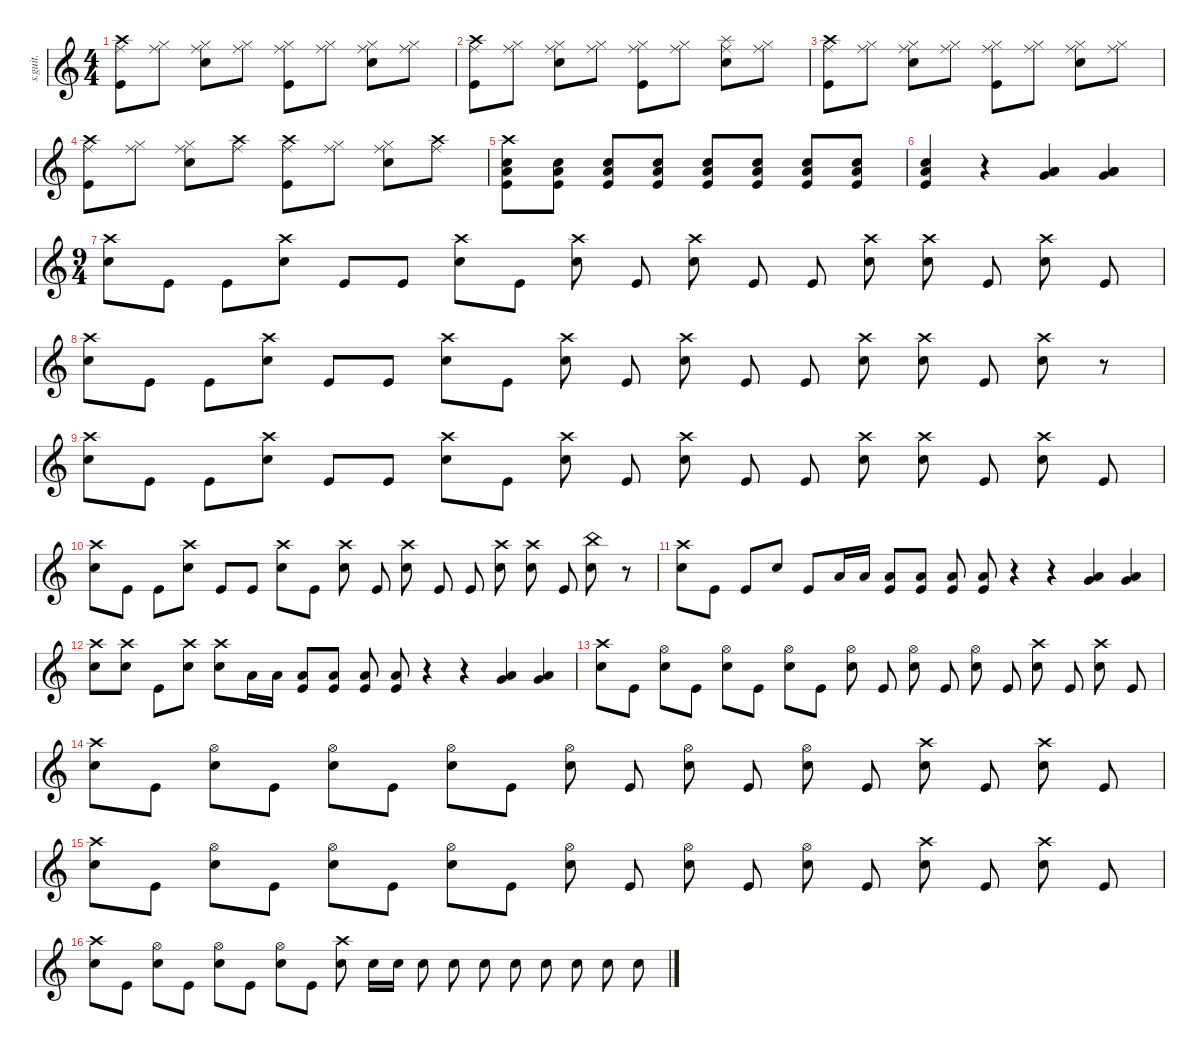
\defaultSystemsLayout 4
\hideDynamics
\bracketExtendMode nobrackets
\track ("A Nameless Ghoul - Drums" "s.guit.") {instrument percussion}
\staff {score}
\articulation defaults
\ts (4 4)
\tempo (130 hide)
\clef g2
\ks c
("Crash high (hit)" "Kick (hit)" "Ride (middle)").8{dy f} ("Hi-Hat (closed)" "Ride (middle)").8 ("Hi-Hat (closed)" "Electric Snare (hit)" "Ride (middle)").8 ("Hi-Hat (closed)" "Ride (middle)").8 ("Hi-Hat (closed)" "Kick (hit)" "Ride (middle)").8 ("Hi-Hat (closed)" "Ride (middle)").8 ("Hi-Hat (closed)" "Electric Snare (hit)" "Ride (middle)").8 ("Hi-Hat (closed)" "Ride (middle)").8 |
("Crash high (hit)" "Kick (hit)" "Ride (middle)").8 ("Hi-Hat (closed)" "Ride (middle)").8 ("Hi-Hat (closed)" "Electric Snare (hit)" "Ride (middle)").8 ("Hi-Hat (closed)" "Ride (middle)").8 ("Hi-Hat (closed)" "Kick (hit)" "Ride (middle)").8 ("Hi-Hat (closed)" "Ride (middle)").8 ("Splash (hit)" "Electric Snare (hit)" "Ride (middle)").8 ("Hi-Hat (closed)" "Ride (middle)").8 |
("Crash high (hit)" "Kick (hit)" "Ride (middle)").8 ("Hi-Hat (closed)" "Ride (middle)").8 ("Hi-Hat (closed)" "Electric Snare (hit)" "Ride (middle)").8 ("Hi-Hat (closed)" "Ride (middle)").8 ("Hi-Hat (closed)" "Kick (hit)" "Ride (middle)").8 ("Hi-Hat (closed)" "Ride (middle)").8 ("Hi-Hat (closed)" "Electric Snare (hit)" "Ride (middle)").8 ("Hi-Hat (closed)" "Ride (middle)").8 |
("Crash high (hit)" "Kick (hit)" "Ride (middle)").8 ("Hi-Hat (closed)" "Ride (middle)").8 ("Hi-Hat (closed)" "Electric Snare (hit)" "Ride (middle)").8 ("Crash high (hit)" "Ride (middle)").8 ("Crash high (hit)" "Kick (hit)" "Ride (middle)").8 ("Hi-Hat (closed)" "Ride (middle)").8 ("Hi-Hat (closed)" "Electric Snare (hit)" "Ride (middle)").8 ("Crash high (hit)" "Ride (middle)").8 |
("Crash high (hit)" "Low Floor Tom (hit)" "Electric Snare (hit)" "Kick (hit)").8 ("Low Floor Tom (hit)" "Electric Snare (hit)" "Kick (hit)").8 ("Low Floor Tom (hit)" "Electric Snare (hit)" "Kick (hit)").8 ("Low Floor Tom (hit)" "Electric Snare (hit)" "Kick (hit)").8 ("Low Floor Tom (hit)" "Electric Snare (hit)" "Kick (hit)").8 ("Low Floor Tom (hit)" "Electric Snare (hit)" "Kick (hit)").8 ("Low Floor Tom (hit)" "Electric Snare (hit)" "Kick (hit)").8 ("Low Floor Tom (hit)" "Electric Snare (hit)" "Kick (hit)").8 |
("Low Floor Tom (hit)" "Electric Snare (hit)" "Kick (hit)").4 r.4 ("Low Tom (hit)" "Very Low Tom (hit)" "Low Floor Tom (hit)").4 ("Low Tom (hit)" "Very Low Tom (hit)" "Low Floor Tom (hit)").4 |
\ts (9 4)
\beaming (8 2 2 2 2)
("Crash high (hit)" "Electric Snare (hit)").8 "Kick (hit)".8 "Kick (hit)".8 ("Crash high (hit)" "Electric Snare (hit)").8 "Kick (hit)".8 "Kick (hit)".8 ("Crash high (hit)" "Electric Snare (hit)").8 "Kick (hit)".8 ("Crash high (hit)" "Electric Snare (hit)").8 "Kick (hit)".8 ("Crash high (hit)" "Electric Snare (hit)").8 "Kick (hit)".8 "Kick (hit)".8 ("Crash high (hit)" "Electric Snare (hit)").8 ("Crash high (hit)" "Electric Snare (hit)").8 "Kick (hit)".8 ("Crash high (hit)" "Electric Snare (hit)").8 "Kick (hit)".8 |
("Crash high (hit)" "Electric Snare (hit)").8 "Kick (hit)".8 "Kick (hit)".8 ("Crash high (hit)" "Electric Snare (hit)").8 "Kick (hit)".8 "Kick (hit)".8 ("Crash high (hit)" "Electric Snare (hit)").8 "Kick (hit)".8 ("Crash high (hit)" "Electric Snare (hit)").8 "Kick (hit)".8 ("Crash high (hit)" "Electric Snare (hit)").8 "Kick (hit)".8 "Kick (hit)".8 ("Crash high (hit)" "Electric Snare (hit)").8 ("Crash high (hit)" "Electric Snare (hit)").8 "Kick (hit)".8 ("Crash high (hit)" "Electric Snare (hit)").8 r.8 |
("Crash high (hit)" "Electric Snare (hit)").8 "Kick (hit)".8 "Kick (hit)".8 ("Crash high (hit)" "Electric Snare (hit)").8 "Kick (hit)".8 "Kick (hit)".8 ("Crash high (hit)" "Electric Snare (hit)").8 "Kick (hit)".8 ("Crash high (hit)" "Electric Snare (hit)").8 "Kick (hit)".8 ("Crash high (hit)" "Electric Snare (hit)").8 "Kick (hit)".8 "Kick (hit)".8 ("Crash high (hit)" "Electric Snare (hit)").8 ("Crash high (hit)" "Electric Snare (hit)").8 "Kick (hit)".8 ("Crash high (hit)" "Electric Snare (hit)").8 "Kick (hit)".8 |
("Crash high (hit)" "Electric Snare (hit)").8 "Kick (hit)".8 "Kick (hit)".8 ("Crash high (hit)" "Electric Snare (hit)").8 "Kick (hit)".8 "Kick (hit)".8 ("Crash high (hit)" "Electric Snare (hit)").8 "Kick (hit)".8 ("Crash high (hit)" "Electric Snare (hit)").8 "Kick (hit)".8 ("Crash high (hit)" "Electric Snare (hit)").8 "Kick (hit)".8 "Kick (hit)".8 ("Crash high (hit)" "Electric Snare (hit)").8 ("Crash high (hit)" "Electric Snare (hit)").8 "Kick (hit)".8 ("China (hit)" "Electric Snare (hit)").8 r.8 |
("Crash high (hit)" "Electric Snare (hit)").8 "Kick (hit)".8 "Kick (hit)".8 "Electric Snare (hit)".8 "Kick (hit)".8 "Low Tom (hit)".16 "Low Floor Tom (hit)".16 ("Low Tom (hit)" "Kick (hit)").8 ("Low Tom (hit)" "Kick (hit)").8 ("Low Floor Tom (hit)" "Kick (hit)").8 ("Low Floor Tom (hit)" "Kick (hit)").8 r.4 r.4 ("Very Low Tom (hit)" "Low Floor Tom (hit)").4 ("Very Low Tom (hit)" "Low Floor Tom (hit)").4 |
("Crash high (hit)" "Electric Snare (hit)").8 ("Crash high (hit)" "Electric Snare (hit)").8 "Kick (hit)".8 ("Crash high (hit)" "Electric Snare (hit)").8 ("Crash high (hit)" "Electric Snare (hit)").8 "Low Tom (hit)".16 "Low Floor Tom (hit)".16 ("Low Tom (hit)" "Kick (hit)").8 ("Low Tom (hit)" "Kick (hit)").8 ("Low Floor Tom (hit)" "Kick (hit)").8 ("Low Floor Tom (hit)" "Kick (hit)").8 r.4 r.4 ("Very Low Tom (hit)" "Low Floor Tom (hit)").4 ("Very Low Tom (hit)" "Low Floor Tom (hit)").4 |
("Crash high (hit)" "Electric Snare (hit)").8 "Kick (hit)".8 ("Hi-Hat (open)" "Electric Snare (hit)").8 "Kick (hit)".8 ("Hi-Hat (open)" "Electric Snare (hit)").8 "Kick (hit)".8 ("Hi-Hat (open)" "Electric Snare (hit)").8 "Kick (hit)".8 ("Hi-Hat (open)" "Electric Snare (hit)").8 "Kick (hit)".8 ("Hi-Hat (open)" "Electric Snare (hit)").8 "Kick (hit)".8 ("Hi-Hat (open)" "Electric Snare (hit)").8 "Kick (hit)".8 ("Crash high (hit)" "Electric Snare (hit)").8 "Kick (hit)".8 ("Crash high (hit)" "Electric Snare (hit)").8 "Kick (hit)".8 |
("Crash high (hit)" "Electric Snare (hit)").8 "Kick (hit)".8 ("Hi-Hat (open)" "Electric Snare (hit)").8 "Kick (hit)".8 ("Hi-Hat (open)" "Electric Snare (hit)").8 "Kick (hit)".8 ("Hi-Hat (open)" "Electric Snare (hit)").8 "Kick (hit)".8 ("Hi-Hat (open)" "Electric Snare (hit)").8 "Kick (hit)".8 ("Hi-Hat (open)" "Electric Snare (hit)").8 "Kick (hit)".8 ("Hi-Hat (open)" "Electric Snare (hit)").8 "Kick (hit)".8 ("Crash high (hit)" "Electric Snare (hit)").8 "Kick (hit)".8 ("Crash high (hit)" "Electric Snare (hit)").8 "Kick (hit)".8 |
("Crash high (hit)" "Electric Snare (hit)").8 "Kick (hit)".8 ("Hi-Hat (open)" "Electric Snare (hit)").8 "Kick (hit)".8 ("Hi-Hat (open)" "Electric Snare (hit)").8 "Kick (hit)".8 ("Hi-Hat (open)" "Electric Snare (hit)").8 "Kick (hit)".8 ("Hi-Hat (open)" "Electric Snare (hit)").8 "Kick (hit)".8 ("Hi-Hat (open)" "Electric Snare (hit)").8 "Kick (hit)".8 ("Hi-Hat (open)" "Electric Snare (hit)").8 "Kick (hit)".8 ("Crash high (hit)" "Electric Snare (hit)").8 "Kick (hit)".8 ("Crash high (hit)" "Electric Snare (hit)").8 "Kick (hit)".8 |
("Crash high (hit)" "Electric Snare (hit)").8 "Kick (hit)".8 ("Hi-Hat (open)" "Electric Snare (hit)").8 "Kick (hit)".8 ("Hi-Hat (open)" "Electric Snare (hit)").8 "Kick (hit)".8 ("Hi-Hat (open)" "Electric Snare (hit)").8 "Kick (hit)".8 ("Crash high (hit)" "Electric Snare (hit)").8 "Electric Snare (hit)".16 "Electric Snare (hit)".16 "Electric Snare (hit)".8 "Electric Snare (hit)".8 "Electric Snare (hit)".8 "Electric Snare (hit)".8 "Electric Snare (hit)".8 "Electric Snare (hit)".8 "Electric Snare (hit)".8 "Electric Snare (hit)".8
